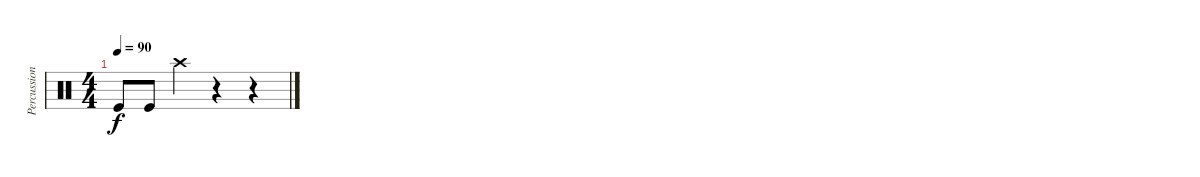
\track ("Percussion" "Percussion") {instrument percussion}
\staff {score}
\articulation defaults
\ts (4 4)
\tempo 90
\clef neutral
\ks c "Kick (hit)".8{dy f} "Kick (hit)".8 "Crash high (hit)".4
r.4 r.4
